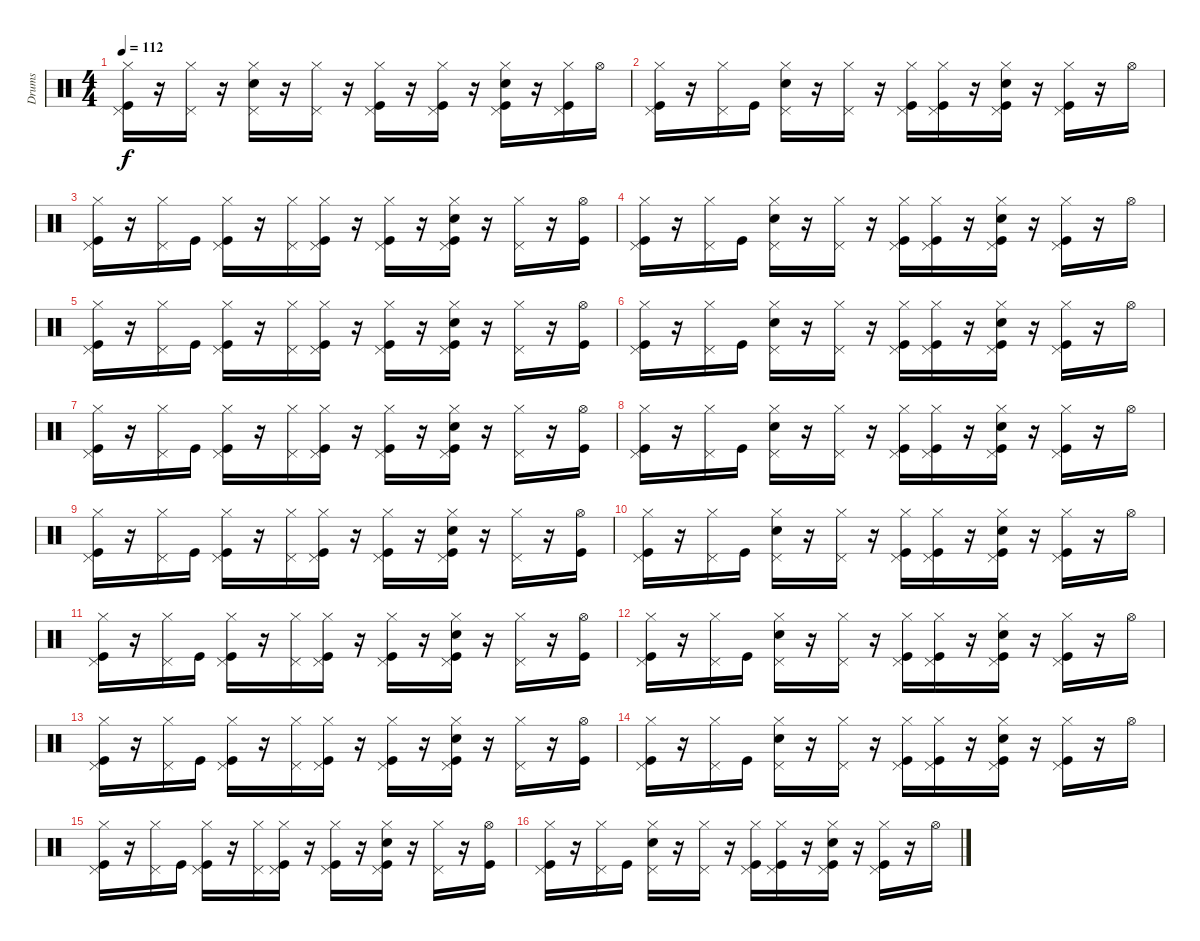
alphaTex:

\track ("Drums" "Drums") {instrument percussion}
\staff {score}
\articulation defaults
\ts (4 4)
\tempo 112
\clef neutral
\ks c
("Hi-Hat (closed)" "Kick (hit)" "Pedal Hi-Hat (hit)").16{dy f} r.16 ("Pedal Hi-Hat (hit)" "Hi-Hat (closed)").16 r.16 ("Hi-Hat (closed)" "Pedal Hi-Hat (hit)" "Snare (hit) 2").16 r.16 ("Hi-Hat (closed)" "Pedal Hi-Hat (hit)").16 r.16 ("Hi-Hat (closed)" "Pedal Hi-Hat (hit)" "Kick (hit)").16 r.16 ("Hi-Hat (closed)" "Pedal Hi-Hat (hit)" "Kick (hit)").16 r.16 ("Hi-Hat (closed)" "Pedal Hi-Hat (hit)" "Kick (hit)" "Snare (hit) 2").16 r.16 ("Hi-Hat (closed)" "Kick (hit)" "Pedal Hi-Hat (hit)").16 "Hi-Hat (open)".16 |
("Hi-Hat (closed)" "Pedal Hi-Hat (hit)" "Kick (hit)").16 r.16 ("Hi-Hat (closed)" "Pedal Hi-Hat (hit)").16 "Kick (hit)".16 ("Hi-Hat (closed)" "Pedal Hi-Hat (hit)" "Snare (hit) 2").16 r.16 ("Hi-Hat (closed)" "Pedal Hi-Hat (hit)").16 r.16 ("Pedal Hi-Hat (hit)" "Kick (hit)" "Hi-Hat (closed)").16 ("Hi-Hat (closed)" "Pedal Hi-Hat (hit)" "Kick (hit)").16 r.16 ("Pedal Hi-Hat (hit)" "Kick (hit)" "Snare (hit) 2" "Hi-Hat (closed)").16 r.16 ("Hi-Hat (closed)" "Kick (hit)" "Pedal Hi-Hat (hit)").16 r.16 "Hi-Hat (open)".16 |
("Hi-Hat (closed)" "Pedal Hi-Hat (hit)" "Kick (hit)").16 r.16 ("Hi-Hat (closed)" "Pedal Hi-Hat (hit)").16 "Kick (hit)".16 ("Hi-Hat (closed)" "Pedal Hi-Hat (hit)" "Kick (hit)").16 r.16 ("Hi-Hat (closed)" "Pedal Hi-Hat (hit)").16 ("Hi-Hat (closed)" "Pedal Hi-Hat (hit)" "Kick (hit)").16 r.16 ("Hi-Hat (closed)" "Pedal Hi-Hat (hit)" "Kick (hit)").16 r.16 ("Hi-Hat (closed)" "Pedal Hi-Hat (hit)" "Kick (hit)" "Snare (hit) 2").16 r.16 ("Hi-Hat (closed)" "Pedal Hi-Hat (hit)").16 r.16 ("Hi-Hat (open)" "Kick (hit)").16 |
("Hi-Hat (closed)" "Pedal Hi-Hat (hit)" "Kick (hit)").16 r.16 ("Hi-Hat (closed)" "Pedal Hi-Hat (hit)").16 "Kick (hit)".16 ("Hi-Hat (closed)" "Pedal Hi-Hat (hit)" "Snare (hit) 2").16 r.16 ("Hi-Hat (closed)" "Pedal Hi-Hat (hit)").16 r.16 ("Pedal Hi-Hat (hit)" "Kick (hit)" "Hi-Hat (closed)").16 ("Hi-Hat (closed)" "Pedal Hi-Hat (hit)" "Kick (hit)").16 r.16 ("Pedal Hi-Hat (hit)" "Kick (hit)" "Snare (hit) 2" "Hi-Hat (closed)").16 r.16 ("Hi-Hat (closed)" "Kick (hit)" "Pedal Hi-Hat (hit)").16 r.16 "Hi-Hat (open)".16 |
("Hi-Hat (closed)" "Pedal Hi-Hat (hit)" "Kick (hit)").16 r.16 ("Hi-Hat (closed)" "Pedal Hi-Hat (hit)").16 "Kick (hit)".16 ("Hi-Hat (closed)" "Pedal Hi-Hat (hit)" "Kick (hit)").16 r.16 ("Hi-Hat (closed)" "Pedal Hi-Hat (hit)").16 ("Hi-Hat (closed)" "Pedal Hi-Hat (hit)" "Kick (hit)").16 r.16 ("Hi-Hat (closed)" "Pedal Hi-Hat (hit)" "Kick (hit)").16 r.16 ("Hi-Hat (closed)" "Pedal Hi-Hat (hit)" "Kick (hit)" "Snare (hit) 2").16 r.16 ("Hi-Hat (closed)" "Pedal Hi-Hat (hit)").16 r.16 ("Hi-Hat (open)" "Kick (hit)").16 |
("Hi-Hat (closed)" "Pedal Hi-Hat (hit)" "Kick (hit)").16 r.16 ("Hi-Hat (closed)" "Pedal Hi-Hat (hit)").16 "Kick (hit)".16 ("Hi-Hat (closed)" "Pedal Hi-Hat (hit)" "Snare (hit) 2").16 r.16 ("Hi-Hat (closed)" "Pedal Hi-Hat (hit)").16 r.16 ("Pedal Hi-Hat (hit)" "Kick (hit)" "Hi-Hat (closed)").16 ("Hi-Hat (closed)" "Pedal Hi-Hat (hit)" "Kick (hit)").16 r.16 ("Pedal Hi-Hat (hit)" "Kick (hit)" "Snare (hit) 2" "Hi-Hat (closed)").16 r.16 ("Hi-Hat (closed)" "Kick (hit)" "Pedal Hi-Hat (hit)").16 r.16 "Hi-Hat (open)".16 |
("Hi-Hat (closed)" "Pedal Hi-Hat (hit)" "Kick (hit)").16 r.16 ("Hi-Hat (closed)" "Pedal Hi-Hat (hit)").16 "Kick (hit)".16 ("Hi-Hat (closed)" "Pedal Hi-Hat (hit)" "Kick (hit)").16 r.16 ("Hi-Hat (closed)" "Pedal Hi-Hat (hit)").16 ("Hi-Hat (closed)" "Pedal Hi-Hat (hit)" "Kick (hit)").16 r.16 ("Hi-Hat (closed)" "Pedal Hi-Hat (hit)" "Kick (hit)").16 r.16 ("Hi-Hat (closed)" "Pedal Hi-Hat (hit)" "Kick (hit)" "Snare (hit) 2").16 r.16 ("Hi-Hat (closed)" "Pedal Hi-Hat (hit)").16 r.16 ("Hi-Hat (open)" "Kick (hit)").16 |
("Hi-Hat (closed)" "Pedal Hi-Hat (hit)" "Kick (hit)").16 r.16 ("Hi-Hat (closed)" "Pedal Hi-Hat (hit)").16 "Kick (hit)".16 ("Hi-Hat (closed)" "Pedal Hi-Hat (hit)" "Snare (hit) 2").16 r.16 ("Hi-Hat (closed)" "Pedal Hi-Hat (hit)").16 r.16 ("Pedal Hi-Hat (hit)" "Kick (hit)" "Hi-Hat (closed)").16 ("Hi-Hat (closed)" "Pedal Hi-Hat (hit)" "Kick (hit)").16 r.16 ("Pedal Hi-Hat (hit)" "Kick (hit)" "Snare (hit) 2" "Hi-Hat (closed)").16 r.16 ("Hi-Hat (closed)" "Kick (hit)" "Pedal Hi-Hat (hit)").16 r.16 "Hi-Hat (open)".16 |
("Hi-Hat (closed)" "Pedal Hi-Hat (hit)" "Kick (hit)").16 r.16 ("Hi-Hat (closed)" "Pedal Hi-Hat (hit)").16 "Kick (hit)".16 ("Hi-Hat (closed)" "Pedal Hi-Hat (hit)" "Kick (hit)").16 r.16 ("Hi-Hat (closed)" "Pedal Hi-Hat (hit)").16 ("Hi-Hat (closed)" "Pedal Hi-Hat (hit)" "Kick (hit)").16 r.16 ("Hi-Hat (closed)" "Pedal Hi-Hat (hit)" "Kick (hit)").16 r.16 ("Hi-Hat (closed)" "Pedal Hi-Hat (hit)" "Kick (hit)" "Snare (hit) 2").16 r.16 ("Hi-Hat (closed)" "Pedal Hi-Hat (hit)").16 r.16 ("Hi-Hat (open)" "Kick (hit)").16 |
("Hi-Hat (closed)" "Pedal Hi-Hat (hit)" "Kick (hit)").16 r.16 ("Hi-Hat (closed)" "Pedal Hi-Hat (hit)").16 "Kick (hit)".16 ("Hi-Hat (closed)" "Pedal Hi-Hat (hit)" "Snare (hit) 2").16 r.16 ("Hi-Hat (closed)" "Pedal Hi-Hat (hit)").16 r.16 ("Pedal Hi-Hat (hit)" "Kick (hit)" "Hi-Hat (closed)").16 ("Hi-Hat (closed)" "Pedal Hi-Hat (hit)" "Kick (hit)").16 r.16 ("Pedal Hi-Hat (hit)" "Kick (hit)" "Snare (hit) 2" "Hi-Hat (closed)").16 r.16 ("Hi-Hat (closed)" "Kick (hit)" "Pedal Hi-Hat (hit)").16 r.16 "Hi-Hat (open)".16 |
("Hi-Hat (closed)" "Pedal Hi-Hat (hit)" "Kick (hit)").16 r.16 ("Hi-Hat (closed)" "Pedal Hi-Hat (hit)").16 "Kick (hit)".16 ("Hi-Hat (closed)" "Pedal Hi-Hat (hit)" "Kick (hit)").16 r.16 ("Hi-Hat (closed)" "Pedal Hi-Hat (hit)").16 ("Hi-Hat (closed)" "Pedal Hi-Hat (hit)" "Kick (hit)").16 r.16 ("Hi-Hat (closed)" "Pedal Hi-Hat (hit)" "Kick (hit)").16 r.16 ("Hi-Hat (closed)" "Pedal Hi-Hat (hit)" "Kick (hit)" "Snare (hit) 2").16 r.16 ("Hi-Hat (closed)" "Pedal Hi-Hat (hit)").16 r.16 ("Hi-Hat (open)" "Kick (hit)").16 |
("Hi-Hat (closed)" "Pedal Hi-Hat (hit)" "Kick (hit)").16 r.16 ("Hi-Hat (closed)" "Pedal Hi-Hat (hit)").16 "Kick (hit)".16 ("Hi-Hat (closed)" "Pedal Hi-Hat (hit)" "Snare (hit) 2").16 r.16 ("Hi-Hat (closed)" "Pedal Hi-Hat (hit)").16 r.16 ("Pedal Hi-Hat (hit)" "Kick (hit)" "Hi-Hat (closed)").16 ("Hi-Hat (closed)" "Pedal Hi-Hat (hit)" "Kick (hit)").16 r.16 ("Pedal Hi-Hat (hit)" "Kick (hit)" "Snare (hit) 2" "Hi-Hat (closed)").16 r.16 ("Hi-Hat (closed)" "Kick (hit)" "Pedal Hi-Hat (hit)").16 r.16 "Hi-Hat (open)".16 |
("Hi-Hat (closed)" "Pedal Hi-Hat (hit)" "Kick (hit)").16 r.16 ("Hi-Hat (closed)" "Pedal Hi-Hat (hit)").16 "Kick (hit)".16 ("Hi-Hat (closed)" "Pedal Hi-Hat (hit)" "Kick (hit)").16 r.16 ("Hi-Hat (closed)" "Pedal Hi-Hat (hit)").16 ("Hi-Hat (closed)" "Pedal Hi-Hat (hit)" "Kick (hit)").16 r.16 ("Hi-Hat (closed)" "Pedal Hi-Hat (hit)" "Kick (hit)").16 r.16 ("Hi-Hat (closed)" "Pedal Hi-Hat (hit)" "Kick (hit)" "Snare (hit) 2").16 r.16 ("Hi-Hat (closed)" "Pedal Hi-Hat (hit)").16 r.16 ("Hi-Hat (open)" "Kick (hit)").16 |
("Hi-Hat (closed)" "Pedal Hi-Hat (hit)" "Kick (hit)").16 r.16 ("Hi-Hat (closed)" "Pedal Hi-Hat (hit)").16 "Kick (hit)".16 ("Hi-Hat (closed)" "Pedal Hi-Hat (hit)" "Snare (hit) 2").16 r.16 ("Hi-Hat (closed)" "Pedal Hi-Hat (hit)").16 r.16 ("Pedal Hi-Hat (hit)" "Kick (hit)" "Hi-Hat (closed)").16 ("Hi-Hat (closed)" "Pedal Hi-Hat (hit)" "Kick (hit)").16 r.16 ("Pedal Hi-Hat (hit)" "Kick (hit)" "Snare (hit) 2" "Hi-Hat (closed)").16 r.16 ("Hi-Hat (closed)" "Kick (hit)" "Pedal Hi-Hat (hit)").16 r.16 "Hi-Hat (open)".16 |
("Hi-Hat (closed)" "Pedal Hi-Hat (hit)" "Kick (hit)").16 r.16 ("Hi-Hat (closed)" "Pedal Hi-Hat (hit)").16 "Kick (hit)".16 ("Hi-Hat (closed)" "Pedal Hi-Hat (hit)" "Kick (hit)").16 r.16 ("Hi-Hat (closed)" "Pedal Hi-Hat (hit)").16 ("Hi-Hat (closed)" "Pedal Hi-Hat (hit)" "Kick (hit)").16 r.16 ("Hi-Hat (closed)" "Pedal Hi-Hat (hit)" "Kick (hit)").16 r.16 ("Hi-Hat (closed)" "Pedal Hi-Hat (hit)" "Kick (hit)" "Snare (hit) 2").16 r.16 ("Hi-Hat (closed)" "Pedal Hi-Hat (hit)").16 r.16 ("Hi-Hat (open)" "Kick (hit)").16 |
("Hi-Hat (closed)" "Pedal Hi-Hat (hit)" "Kick (hit)").16 r.16 ("Hi-Hat (closed)" "Pedal Hi-Hat (hit)").16 "Kick (hit)".16 ("Hi-Hat (closed)" "Pedal Hi-Hat (hit)" "Snare (hit) 2").16 r.16 ("Hi-Hat (closed)" "Pedal Hi-Hat (hit)").16 r.16 ("Pedal Hi-Hat (hit)" "Kick (hit)" "Hi-Hat (closed)").16 ("Hi-Hat (closed)" "Pedal Hi-Hat (hit)" "Kick (hit)").16 r.16 ("Pedal Hi-Hat (hit)" "Kick (hit)" "Snare (hit) 2" "Hi-Hat (closed)").16 r.16 ("Hi-Hat (closed)" "Kick (hit)" "Pedal Hi-Hat (hit)").16 r.16 "Hi-Hat (open)".16
